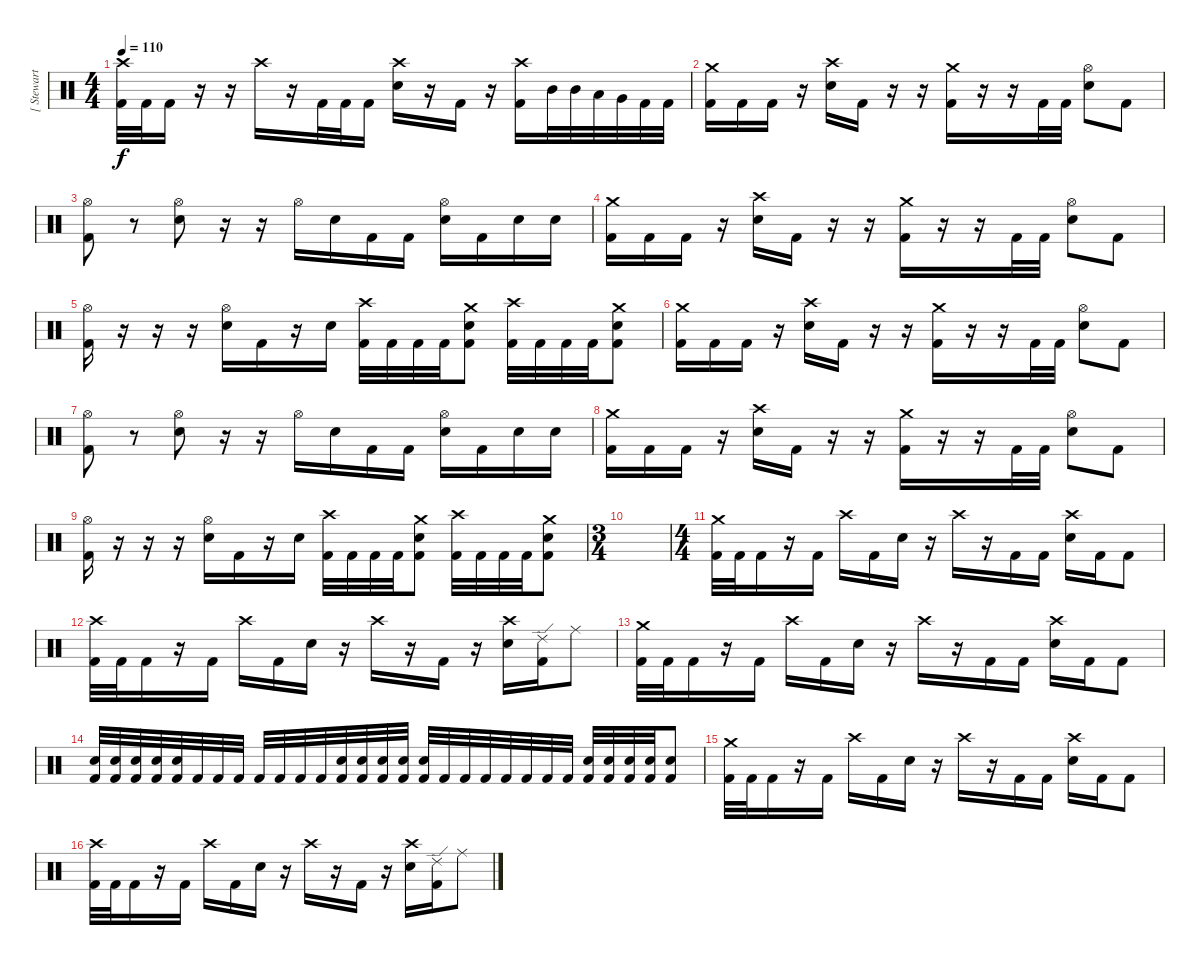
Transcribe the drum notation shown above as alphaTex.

\track ("[ Stewart ]" "[ Stewart ") {instrument percussion}
\staff {score}
\articulation defaults
\ts (4 4)
\tempo 110
\clef neutral
\ks c
("Kick (hit) 2" "Crash high (hit)").32{dy f} "Kick (hit) 2".32 "Kick (hit) 2".16 r.16 r.16 "Crash high (hit)".16 r.16 "Kick (hit) 2".32 "Kick (hit) 2".32 "Kick (hit) 2".16 ("Electric Snare (hit)" "Crash high (hit)").16 r.16 "Kick (hit) 2".16 r.16 ("Kick (hit) 2" "Crash high (hit)").16 "Mid Tom (hit)".32 "Mid Tom (hit)".32 "Low Tom (hit)".32 "Very Low Tom (hit)".32 "Kick (hit) 2".32 "Kick (hit) 2".32 |
("Kick (hit) 2" "Crash medium (hit)").16 "Kick (hit) 2".16 "Kick (hit) 2".16 r.16 ("Electric Snare (hit)" "Crash high (hit)").16 "Kick (hit) 2".16 r.16 r.16 ("Kick (hit) 2" "Crash medium (hit)").16 r.16 r.16 "Kick (hit) 2".32 "Kick (hit) 2".32 ("Electric Snare (hit)" "Hi-Hat (open)").8 "Kick (hit) 2".8 |
("Kick (hit) 2" "Hi-Hat (open)").8 r.8 ("Electric Snare (hit)" "Hi-Hat (open)").8 r.16 r.16 "Hi-Hat (open)".16 "Electric Snare (hit)".16 "Kick (hit) 2".16 "Kick (hit) 2".16 ("Electric Snare (hit)" "Hi-Hat (open)").16 "Kick (hit) 2".16 "Electric Snare (hit)".16 "Electric Snare (hit)".16 |
("Kick (hit) 2" "Crash medium (hit)").16 "Kick (hit) 2".16 "Kick (hit) 2".16 r.16 ("Electric Snare (hit)" "Crash high (hit)").16 "Kick (hit) 2".16 r.16 r.16 ("Kick (hit) 2" "Crash medium (hit)").16 r.16 r.16 "Kick (hit) 2".32 "Kick (hit) 2".32 ("Electric Snare (hit)" "Hi-Hat (open)").8 "Kick (hit) 2".8 |
("Kick (hit) 2" "Hi-Hat (open)").16 r.16 r.16 r.16 ("Electric Snare (hit)" "Hi-Hat (open)").16 "Kick (hit) 2".16 r.16 "Electric Snare (hit)".16 ("Kick (hit) 2" "Crash high (hit)").32 "Kick (hit) 2".32 "Kick (hit) 2".32 "Kick (hit) 2".32 ("Kick (hit) 2" "Electric Snare (hit)" "Crash medium (hit)").8 ("Kick (hit) 2" "Crash high (hit)").32 "Kick (hit) 2".32 "Kick (hit) 2".32 "Kick (hit) 2".32 ("Kick (hit) 2" "Electric Snare (hit)" "Crash medium (hit)").8 |
("Kick (hit) 2" "Crash medium (hit)").16 "Kick (hit) 2".16 "Kick (hit) 2".16 r.16 ("Electric Snare (hit)" "Crash high (hit)").16 "Kick (hit) 2".16 r.16 r.16 ("Kick (hit) 2" "Crash medium (hit)").16 r.16 r.16 "Kick (hit) 2".32 "Kick (hit) 2".32 ("Electric Snare (hit)" "Hi-Hat (open)").8 "Kick (hit) 2".8 |
("Kick (hit) 2" "Hi-Hat (open)").8 r.8 ("Electric Snare (hit)" "Hi-Hat (open)").8 r.16 r.16 "Hi-Hat (open)".16 "Electric Snare (hit)".16 "Kick (hit) 2".16 "Kick (hit) 2".16 ("Electric Snare (hit)" "Hi-Hat (open)").16 "Kick (hit) 2".16 "Electric Snare (hit)".16 "Electric Snare (hit)".16 |
("Kick (hit) 2" "Crash medium (hit)").16 "Kick (hit) 2".16 "Kick (hit) 2".16 r.16 ("Electric Snare (hit)" "Crash high (hit)").16 "Kick (hit) 2".16 r.16 r.16 ("Kick (hit) 2" "Crash medium (hit)").16 r.16 r.16 "Kick (hit) 2".32 "Kick (hit) 2".32 ("Electric Snare (hit)" "Hi-Hat (open)").8 "Kick (hit) 2".8 |
("Kick (hit) 2" "Hi-Hat (open)").16 r.16 r.16 r.16 ("Electric Snare (hit)" "Hi-Hat (open)").16 "Kick (hit) 2".16 r.16 "Electric Snare (hit)".16 ("Kick (hit) 2" "Crash high (hit)").32 "Kick (hit) 2".32 "Kick (hit) 2".32 "Kick (hit) 2".32 ("Kick (hit) 2" "Electric Snare (hit)" "Crash medium (hit)").8 ("Kick (hit) 2" "Crash high (hit)").32 "Kick (hit) 2".32 "Kick (hit) 2".32 "Kick (hit) 2".32 ("Kick (hit) 2" "Electric Snare (hit)" "Crash medium (hit)").8 |
\ts (3 4)
|
\ts (4 4)
("Kick (hit) 2" "Crash medium (hit)").32 "Kick (hit) 2".32 "Kick (hit) 2".16 r.16 "Kick (hit) 2".16 "Crash high (hit)".16 "Kick (hit) 2".16 "Electric Snare (hit)".16 r.16 "Crash high (hit)".16 r.16 "Kick (hit) 2".16 "Kick (hit) 2".16 ("Electric Snare (hit)" "Crash high (hit)").16 "Kick (hit) 2".16 "Kick (hit) 2".8 |
("Kick (hit) 2" "Crash high (hit)").32 "Kick (hit) 2".32 "Kick (hit) 2".16 r.16 "Kick (hit) 2".16 "Crash high (hit)".16 "Kick (hit) 2".16 "Electric Snare (hit)".16 r.16 "Crash high (hit)".16 r.16 "Kick (hit) 2".16 r.16 ("Electric Snare (hit)" "Crash high (hit)").16 ("Kick (hit) 2" "Ride (edge) 2").16 "Ride (middle)".8 |
("Kick (hit) 2" "Crash medium (hit)").32 "Kick (hit) 2".32 "Kick (hit) 2".16 r.16 "Kick (hit) 2".16 "Crash high (hit)".16 "Kick (hit) 2".16 "Electric Snare (hit)".16 r.16 "Crash high (hit)".16 r.16 "Kick (hit) 2".16 "Kick (hit) 2".16 ("Electric Snare (hit)" "Crash high (hit)").16 "Kick (hit) 2".16 "Kick (hit) 2".8 |
("Kick (hit) 2" "Electric Snare (hit)").32 ("Kick (hit) 2" "Electric Snare (hit)").32 ("Kick (hit) 2" "Electric Snare (hit)").32 ("Kick (hit) 2" "Electric Snare (hit)").32 ("Kick (hit) 2" "Electric Snare (hit)").32 "Kick (hit) 2".32 "Kick (hit) 2".32 "Kick (hit) 2".32 "Kick (hit) 2".32 "Kick (hit) 2".32 "Kick (hit) 2".32 "Kick (hit) 2".32 ("Kick (hit) 2" "Electric Snare (hit)").32 ("Kick (hit) 2" "Electric Snare (hit)").32 ("Kick (hit) 2" "Electric Snare (hit)").32 ("Kick (hit) 2" "Electric Snare (hit)").32 ("Kick (hit) 2" "Electric Snare (hit)").32 "Kick (hit) 2".32 "Kick (hit) 2".32 "Kick (hit) 2".32 "Kick (hit) 2".32 "Kick (hit) 2".32 "Kick (hit) 2".32 "Kick (hit) 2".32 ("Kick (hit) 2" "Electric Snare (hit)").32 ("Kick (hit) 2" "Electric Snare (hit)").32 ("Kick (hit) 2" "Electric Snare (hit)").32 ("Kick (hit) 2" "Electric Snare (hit)").32 ("Kick (hit) 2" "Electric Snare (hit)").8 |
("Kick (hit) 2" "Crash medium (hit)").32 "Kick (hit) 2".32 "Kick (hit) 2".16 r.16 "Kick (hit) 2".16 "Crash high (hit)".16 "Kick (hit) 2".16 "Electric Snare (hit)".16 r.16 "Crash high (hit)".16 r.16 "Kick (hit) 2".16 "Kick (hit) 2".16 ("Electric Snare (hit)" "Crash high (hit)").16 "Kick (hit) 2".16 "Kick (hit) 2".8 |
("Kick (hit) 2" "Crash high (hit)").32 "Kick (hit) 2".32 "Kick (hit) 2".16 r.16 "Kick (hit) 2".16 "Crash high (hit)".16 "Kick (hit) 2".16 "Electric Snare (hit)".16 r.16 "Crash high (hit)".16 r.16 "Kick (hit) 2".16 r.16 ("Electric Snare (hit)" "Crash high (hit)").16 ("Kick (hit) 2" "Ride (edge) 2").16 "Ride (middle)".8
